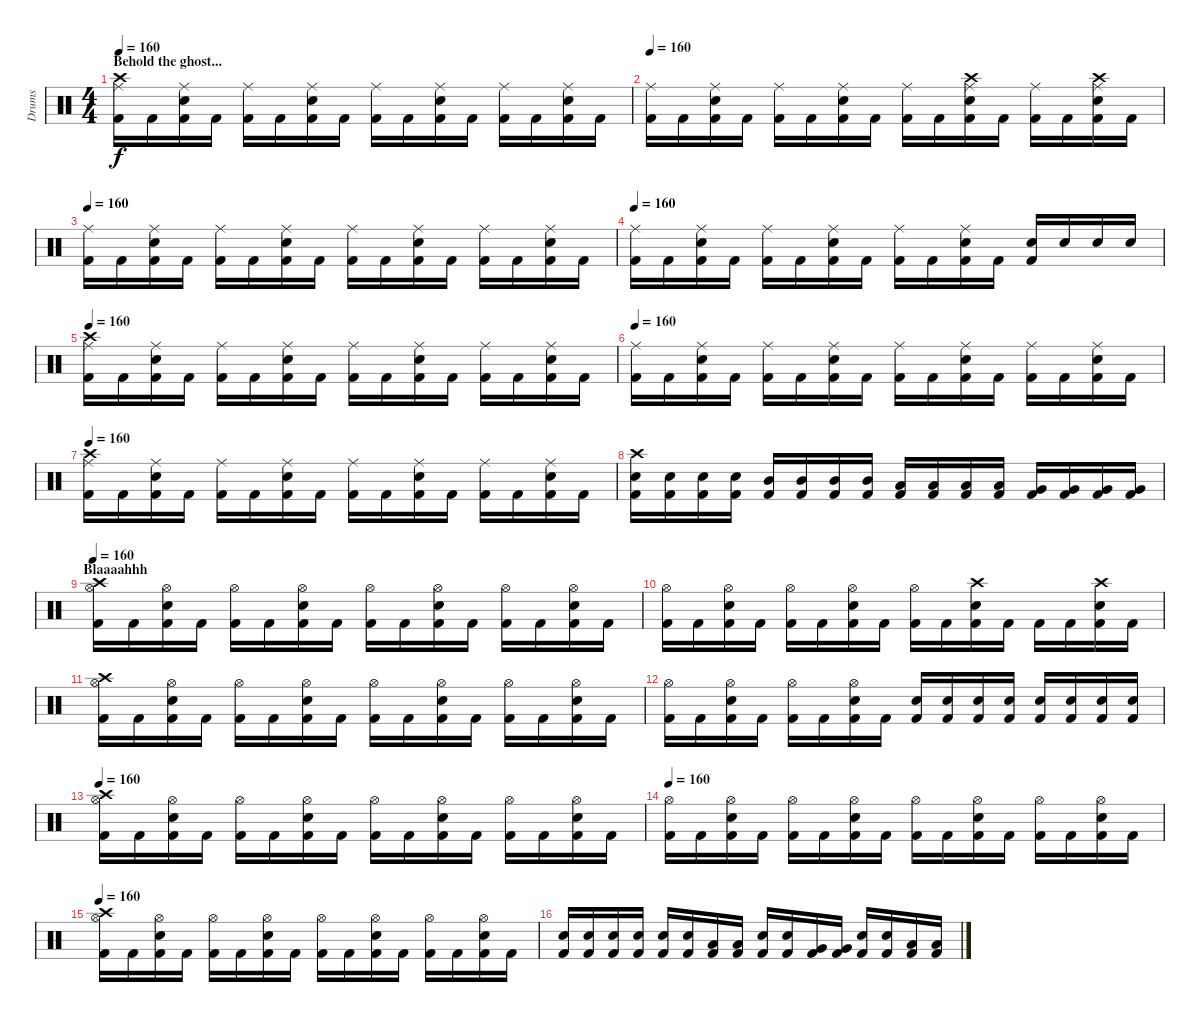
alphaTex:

\track ("Drums" "Drums") {instrument percussion}
\staff {score}
\articulation defaults
\ts (4 4)
\section ("" "Behold the ghost...")
\tempo 160
\clef neutral
\ks c
("Ride (middle)" "Crash high (hit)" "Kick (hit) 2").16{dy f} "Kick (hit) 2".16 ("Ride (middle)" "Snare (hit) 2" "Kick (hit) 2").16 "Kick (hit) 2".16 ("Ride (middle)" "Kick (hit) 2").16 "Kick (hit) 2".16 ("Ride (middle)" "Snare (hit) 2" "Kick (hit) 2").16 "Kick (hit) 2".16 ("Ride (middle)" "Kick (hit) 2").16 "Kick (hit) 2".16 ("Ride (middle)" "Snare (hit) 2" "Kick (hit) 2").16 "Kick (hit) 2".16 ("Ride (middle)" "Kick (hit) 2").16 "Kick (hit) 2".16 ("Ride (middle)" "Snare (hit) 2" "Kick (hit) 2").16 "Kick (hit) 2".16 |
\tempo 160
("Ride (middle)" "Kick (hit) 2").16 "Kick (hit) 2".16 ("Ride (middle)" "Snare (hit) 2" "Kick (hit) 2").16 "Kick (hit) 2".16 ("Ride (middle)" "Kick (hit) 2").16 "Kick (hit) 2".16 ("Ride (middle)" "Snare (hit) 2" "Kick (hit) 2").16 "Kick (hit) 2".16 ("Ride (middle)" "Kick (hit) 2").16 "Kick (hit) 2".16 ("Ride (middle)" "Crash high (hit)" "Snare (hit) 2" "Kick (hit) 2").16 "Kick (hit) 2".16 ("Ride (middle)" "Kick (hit) 2").16 "Kick (hit) 2".16 ("Ride (middle)" "Crash high (hit)" "Snare (hit) 2" "Kick (hit) 2").16 "Kick (hit) 2".16 |
\tempo 160
("Ride (middle)" "Kick (hit) 2").16 "Kick (hit) 2".16 ("Ride (middle)" "Snare (hit) 2" "Kick (hit) 2").16 "Kick (hit) 2".16 ("Ride (middle)" "Kick (hit) 2").16 "Kick (hit) 2".16 ("Ride (middle)" "Snare (hit) 2" "Kick (hit) 2").16 "Kick (hit) 2".16 ("Ride (middle)" "Kick (hit) 2").16 "Kick (hit) 2".16 ("Ride (middle)" "Snare (hit) 2" "Kick (hit) 2").16 "Kick (hit) 2".16 ("Ride (middle)" "Kick (hit) 2").16 "Kick (hit) 2".16 ("Ride (middle)" "Snare (hit) 2" "Kick (hit) 2").16 "Kick (hit) 2".16 |
\tempo 160
("Ride (middle)" "Kick (hit) 2").16 "Kick (hit) 2".16 ("Ride (middle)" "Snare (hit) 2" "Kick (hit) 2").16 "Kick (hit) 2".16 ("Ride (middle)" "Kick (hit) 2").16 "Kick (hit) 2".16 ("Ride (middle)" "Snare (hit) 2" "Kick (hit) 2").16 "Kick (hit) 2".16 ("Ride (middle)" "Kick (hit) 2").16 "Kick (hit) 2".16 ("Ride (middle)" "Snare (hit) 2" "Kick (hit) 2").16 "Kick (hit) 2".16 ("Snare (hit) 2" "Kick (hit) 2").16 "Snare (hit) 2".16 "Snare (hit) 2".16 "Snare (hit) 2".16 |
\tempo 160
("Ride (middle)" "Crash high (hit)" "Kick (hit) 2").16 "Kick (hit) 2".16 ("Ride (middle)" "Snare (hit) 2" "Kick (hit) 2").16 "Kick (hit) 2".16 ("Ride (middle)" "Kick (hit) 2").16 "Kick (hit) 2".16 ("Ride (middle)" "Snare (hit) 2" "Kick (hit) 2").16 "Kick (hit) 2".16 ("Ride (middle)" "Kick (hit) 2").16 "Kick (hit) 2".16 ("Ride (middle)" "Snare (hit) 2" "Kick (hit) 2").16 "Kick (hit) 2".16 ("Ride (middle)" "Kick (hit) 2").16 "Kick (hit) 2".16 ("Ride (middle)" "Snare (hit) 2" "Kick (hit) 2").16 "Kick (hit) 2".16 |
\tempo 160
("Ride (middle)" "Kick (hit) 2").16 "Kick (hit) 2".16 ("Ride (middle)" "Snare (hit) 2" "Kick (hit) 2").16 "Kick (hit) 2".16 ("Ride (middle)" "Kick (hit) 2").16 "Kick (hit) 2".16 ("Ride (middle)" "Snare (hit) 2" "Kick (hit) 2").16 "Kick (hit) 2".16 ("Ride (middle)" "Kick (hit) 2").16 "Kick (hit) 2".16 ("Ride (middle)" "Snare (hit) 2" "Kick (hit) 2").16 "Kick (hit) 2".16 ("Ride (middle)" "Kick (hit) 2").16 "Kick (hit) 2".16 ("Ride (middle)" "Snare (hit) 2" "Kick (hit) 2").16 "Kick (hit) 2".16 |
\tempo 160
("Ride (middle)" "Crash high (hit)" "Kick (hit) 2").16 "Kick (hit) 2".16 ("Ride (middle)" "Snare (hit) 2" "Kick (hit) 2").16 "Kick (hit) 2".16 ("Ride (middle)" "Kick (hit) 2").16 "Kick (hit) 2".16 ("Ride (middle)" "Snare (hit) 2" "Kick (hit) 2").16 "Kick (hit) 2".16 ("Ride (middle)" "Kick (hit) 2").16 "Kick (hit) 2".16 ("Ride (middle)" "Snare (hit) 2" "Kick (hit) 2").16 "Kick (hit) 2".16 ("Ride (middle)" "Kick (hit) 2").16 "Kick (hit) 2".16 ("Ride (middle)" "Snare (hit) 2" "Kick (hit) 2").16 "Kick (hit) 2".16 |
("Crash high (hit)" "Snare (hit) 2" "Kick (hit) 2").16 ("Snare (hit) 2" "Kick (hit) 2").16 ("Snare (hit) 2" "Kick (hit) 2").16 ("Snare (hit) 2" "Kick (hit) 2").16 ("Mid Tom (hit)" "Kick (hit) 2").16 ("Mid Tom (hit)" "Kick (hit) 2").16 ("Mid Tom (hit)" "Kick (hit) 2").16 ("Mid Tom (hit)" "Kick (hit) 2").16 ("Low Tom (hit)" "Kick (hit) 2").16 ("Low Tom (hit)" "Kick (hit) 2").16 ("Low Tom (hit)" "Kick (hit) 2").16 ("Low Tom (hit)" "Kick (hit) 2").16 ("Very Low Tom (hit)" "Kick (hit) 2").16 ("Very Low Tom (hit)" "Kick (hit) 2").16 ("Very Low Tom (hit)" "Kick (hit) 2").16 ("Very Low Tom (hit)" "Kick (hit) 2").16 |
\section ("" "Blaaaahhh")
\tempo 160
("Crash high (hit)" "Hi-Hat (open)" "Kick (hit) 2").16 "Kick (hit) 2".16 ("Hi-Hat (open)" "Snare (hit) 2" "Kick (hit) 2").16 "Kick (hit) 2".16 ("Hi-Hat (open)" "Kick (hit) 2").16 "Kick (hit) 2".16 ("Hi-Hat (open)" "Snare (hit) 2" "Kick (hit) 2").16 "Kick (hit) 2".16 ("Hi-Hat (open)" "Kick (hit) 2").16 "Kick (hit) 2".16 ("Hi-Hat (open)" "Snare (hit) 2" "Kick (hit) 2").16 "Kick (hit) 2".16 ("Hi-Hat (open)" "Kick (hit) 2").16 "Kick (hit) 2".16 ("Hi-Hat (open)" "Snare (hit) 2" "Kick (hit) 2").16 "Kick (hit) 2".16 |
("Hi-Hat (open)" "Kick (hit) 2").16 "Kick (hit) 2".16 ("Hi-Hat (open)" "Snare (hit) 2" "Kick (hit) 2").16 "Kick (hit) 2".16 ("Hi-Hat (open)" "Kick (hit) 2").16 "Kick (hit) 2".16 ("Hi-Hat (open)" "Snare (hit) 2" "Kick (hit) 2").16 "Kick (hit) 2".16 ("Hi-Hat (open)" "Kick (hit) 2").16 "Kick (hit) 2".16 ("Crash high (hit)" "Snare (hit) 2" "Kick (hit) 2").16 "Kick (hit) 2".16 "Kick (hit) 2".16 "Kick (hit) 2".16 ("Crash high (hit)" "Snare (hit) 2" "Kick (hit) 2").16 "Kick (hit) 2".16 |
("Crash high (hit)" "Hi-Hat (open)" "Kick (hit) 2").16 "Kick (hit) 2".16 ("Hi-Hat (open)" "Snare (hit) 2" "Kick (hit) 2").16 "Kick (hit) 2".16 ("Hi-Hat (open)" "Kick (hit) 2").16 "Kick (hit) 2".16 ("Hi-Hat (open)" "Snare (hit) 2" "Kick (hit) 2").16 "Kick (hit) 2".16 ("Hi-Hat (open)" "Kick (hit) 2").16 "Kick (hit) 2".16 ("Hi-Hat (open)" "Snare (hit) 2" "Kick (hit) 2").16 "Kick (hit) 2".16 ("Hi-Hat (open)" "Kick (hit) 2").16 "Kick (hit) 2".16 ("Hi-Hat (open)" "Snare (hit) 2" "Kick (hit) 2").16 "Kick (hit) 2".16 |
("Hi-Hat (open)" "Kick (hit) 2").16 "Kick (hit) 2".16 ("Hi-Hat (open)" "Snare (hit) 2" "Kick (hit) 2").16 "Kick (hit) 2".16 ("Hi-Hat (open)" "Kick (hit) 2").16 "Kick (hit) 2".16 ("Hi-Hat (open)" "Snare (hit) 2" "Kick (hit) 2").16 "Kick (hit) 2".16 ("Snare (hit) 2" "Kick (hit) 2").16 ("Snare (hit) 2" "Kick (hit) 2").16 ("Snare (hit) 2" "Kick (hit) 2").16 ("Snare (hit) 2" "Kick (hit) 2").16 ("Snare (hit) 2" "Kick (hit) 2").16 ("Snare (hit) 2" "Kick (hit) 2").16 ("Snare (hit) 2" "Kick (hit) 2").16 ("Snare (hit) 2" "Kick (hit) 2").16 |
\tempo 160
("Crash high (hit)" "Hi-Hat (open)" "Kick (hit) 2").16 "Kick (hit) 2".16 ("Hi-Hat (open)" "Snare (hit) 2" "Kick (hit) 2").16 "Kick (hit) 2".16 ("Hi-Hat (open)" "Kick (hit) 2").16 "Kick (hit) 2".16 ("Hi-Hat (open)" "Snare (hit) 2" "Kick (hit) 2").16 "Kick (hit) 2".16 ("Hi-Hat (open)" "Kick (hit) 2").16 "Kick (hit) 2".16 ("Hi-Hat (open)" "Snare (hit) 2" "Kick (hit) 2").16 "Kick (hit) 2".16 ("Hi-Hat (open)" "Kick (hit) 2").16 "Kick (hit) 2".16 ("Hi-Hat (open)" "Snare (hit) 2" "Kick (hit) 2").16 "Kick (hit) 2".16 |
\tempo 160
("Hi-Hat (open)" "Kick (hit) 2").16 "Kick (hit) 2".16 ("Hi-Hat (open)" "Snare (hit) 2" "Kick (hit) 2").16 "Kick (hit) 2".16 ("Hi-Hat (open)" "Kick (hit) 2").16 "Kick (hit) 2".16 ("Hi-Hat (open)" "Snare (hit) 2" "Kick (hit) 2").16 "Kick (hit) 2".16 ("Hi-Hat (open)" "Kick (hit) 2").16 "Kick (hit) 2".16 ("Hi-Hat (open)" "Snare (hit) 2" "Kick (hit) 2").16 "Kick (hit) 2".16 ("Hi-Hat (open)" "Kick (hit) 2").16 "Kick (hit) 2".16 ("Hi-Hat (open)" "Snare (hit) 2" "Kick (hit) 2").16 "Kick (hit) 2".16 |
\tempo 160
("Crash high (hit)" "Hi-Hat (open)" "Kick (hit) 2").16 "Kick (hit) 2".16 ("Hi-Hat (open)" "Snare (hit) 2" "Kick (hit) 2").16 "Kick (hit) 2".16 ("Hi-Hat (open)" "Kick (hit) 2").16 "Kick (hit) 2".16 ("Hi-Hat (open)" "Snare (hit) 2" "Kick (hit) 2").16 "Kick (hit) 2".16 ("Hi-Hat (open)" "Kick (hit) 2").16 "Kick (hit) 2".16 ("Hi-Hat (open)" "Snare (hit) 2" "Kick (hit) 2").16 "Kick (hit) 2".16 ("Hi-Hat (open)" "Kick (hit) 2").16 "Kick (hit) 2".16 ("Hi-Hat (open)" "Snare (hit) 2" "Kick (hit) 2").16 "Kick (hit) 2".16 |
("Snare (hit) 2" "Kick (hit) 2").16 ("Snare (hit) 2" "Kick (hit) 2").16 ("Snare (hit) 2" "Kick (hit) 2").16 ("Snare (hit) 2" "Kick (hit) 2").16 ("Snare (hit) 2" "Kick (hit) 2").16 ("Snare (hit) 2" "Kick (hit) 2").16 ("Low Tom (hit)" "Kick (hit) 2").16 ("Low Tom (hit)" "Kick (hit) 2").16 ("Snare (hit) 2" "Kick (hit) 2").16 ("Snare (hit) 2" "Kick (hit) 2").16 ("Very Low Tom (hit)" "Kick (hit) 2").16 ("Very Low Tom (hit)" "Kick (hit) 2").16 ("Snare (hit) 2" "Kick (hit) 2").16 ("Snare (hit) 2" "Kick (hit) 2").16 ("Low Floor Tom (hit)" "Kick (hit) 2").16 ("Low Floor Tom (hit)" "Kick (hit) 2").16
